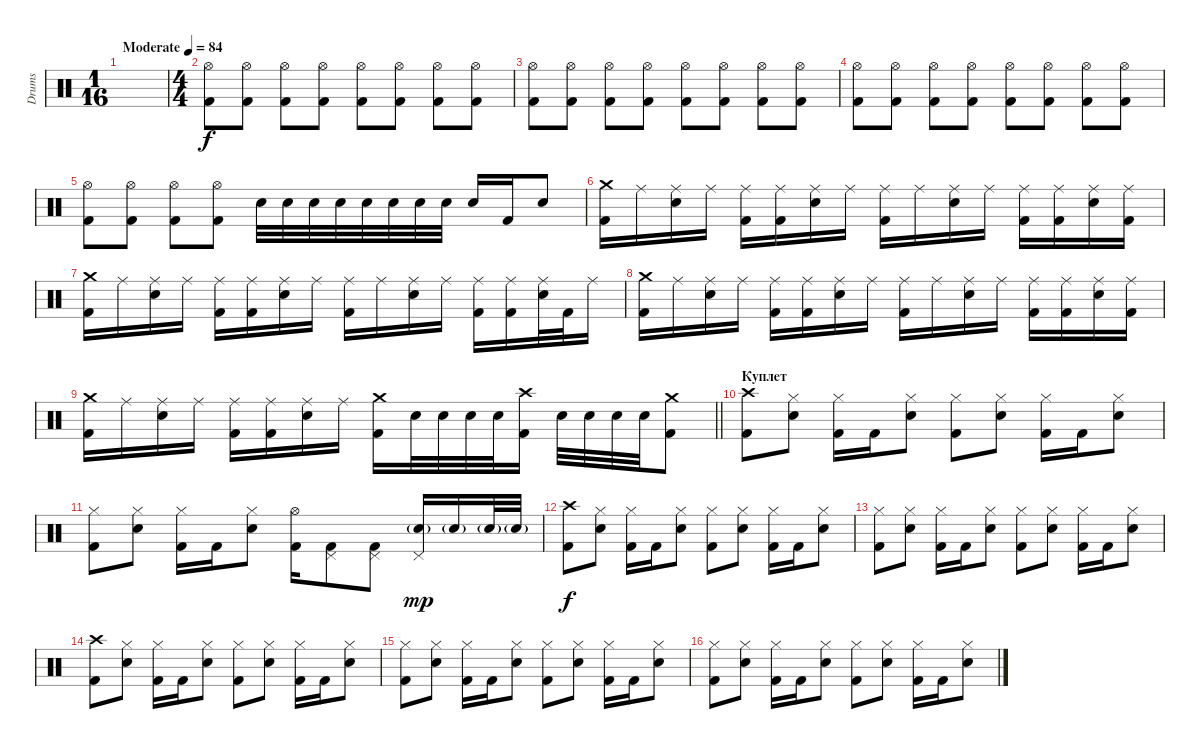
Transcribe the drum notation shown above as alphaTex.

\track ("Drums" "Drums") {instrument percussion}
\staff {score}
\articulation defaults
\ts (1 16)
\tempo (84 "Moderate")
\clef neutral
\ks c
|
\ts (4 4)
("Hi-Hat (open)" "Kick (hit) 2").8 ("Hi-Hat (open)" "Kick (hit) 2").8 ("Hi-Hat (open)" "Kick (hit) 2").8 ("Hi-Hat (open)" "Kick (hit) 2").8 ("Hi-Hat (open)" "Kick (hit) 2").8 ("Hi-Hat (open)" "Kick (hit) 2").8 ("Hi-Hat (open)" "Kick (hit) 2").8 ("Hi-Hat (open)" "Kick (hit) 2").8 |
("Hi-Hat (open)" "Kick (hit) 2").8 ("Hi-Hat (open)" "Kick (hit) 2").8 ("Hi-Hat (open)" "Kick (hit) 2").8 ("Hi-Hat (open)" "Kick (hit) 2").8 ("Hi-Hat (open)" "Kick (hit) 2").8 ("Hi-Hat (open)" "Kick (hit) 2").8 ("Hi-Hat (open)" "Kick (hit) 2").8 ("Hi-Hat (open)" "Kick (hit) 2").8 |
("Hi-Hat (open)" "Kick (hit) 2").8 ("Hi-Hat (open)" "Kick (hit) 2").8 ("Hi-Hat (open)" "Kick (hit) 2").8 ("Hi-Hat (open)" "Kick (hit) 2").8 ("Hi-Hat (open)" "Kick (hit) 2").8 ("Hi-Hat (open)" "Kick (hit) 2").8 ("Hi-Hat (open)" "Kick (hit) 2").8 ("Hi-Hat (open)" "Kick (hit) 2").8 |
("Hi-Hat (open)" "Kick (hit) 2").8 ("Hi-Hat (open)" "Kick (hit) 2").8 ("Hi-Hat (open)" "Kick (hit) 2").8 ("Hi-Hat (open)" "Kick (hit) 2").8 "Snare (hit) 2".32 "Snare (hit) 2".32 "Snare (hit) 2".32 "Snare (hit) 2".32 "Snare (hit) 2".32 "Snare (hit) 2".32 "Snare (hit) 2".32 "Snare (hit) 2".32 "Snare (hit) 2".16 "Kick (hit) 2".16 "Snare (hit) 2".8 |
("Crash medium (hit)" "Kick (hit) 2").16 "Ride (middle)".16 ("Ride (middle)" "Snare (hit) 2").16 "Ride (middle)".16 ("Ride (middle)" "Kick (hit) 2").16 ("Ride (middle)" "Kick (hit) 2").16 ("Ride (middle)" "Snare (hit) 2").16 "Ride (middle)".16 ("Ride (middle)" "Kick (hit) 2").16 "Ride (middle)".16 ("Ride (middle)" "Snare (hit) 2").16 "Ride (middle)".16 ("Ride (middle)" "Kick (hit) 2").16 ("Ride (middle)" "Kick (hit) 2").16 ("Ride (middle)" "Snare (hit) 2").16 ("Ride (middle)" "Kick (hit) 2").16 |
("Crash medium (hit)" "Kick (hit) 2").16 "Ride (middle)".16 ("Ride (middle)" "Snare (hit) 2").16 "Ride (middle)".16 ("Ride (middle)" "Kick (hit) 2").16 ("Ride (middle)" "Kick (hit) 2").16 ("Ride (middle)" "Snare (hit) 2").16 "Ride (middle)".16 ("Ride (middle)" "Kick (hit) 2").16 "Ride (middle)".16 ("Ride (middle)" "Snare (hit) 2").16 "Ride (middle)".16 ("Ride (middle)" "Kick (hit) 2").16 ("Ride (middle)" "Kick (hit) 2").16 ("Ride (middle)" "Snare (hit) 2").32 "Kick (hit) 2".32 "Ride (middle)".16 |
("Crash medium (hit)" "Kick (hit) 2").16 "Ride (middle)".16 ("Ride (middle)" "Snare (hit) 2").16 "Ride (middle)".16 ("Ride (middle)" "Kick (hit) 2").16 ("Ride (middle)" "Kick (hit) 2").16 ("Ride (middle)" "Snare (hit) 2").16 "Ride (middle)".16 ("Ride (middle)" "Kick (hit) 2").16 "Ride (middle)".16 ("Ride (middle)" "Snare (hit) 2").16 "Ride (middle)".16 ("Ride (middle)" "Kick (hit) 2").16 ("Ride (middle)" "Kick (hit) 2").16 ("Ride (middle)" "Snare (hit) 2").16 ("Ride (middle)" "Kick (hit) 2").16 |
\barLineRight lightlight
("Crash medium (hit)" "Kick (hit) 2").16 "Ride (middle)".16 ("Ride (middle)" "Snare (hit) 2").16 "Ride (middle)".16 ("Ride (middle)" "Kick (hit) 2").16 ("Ride (middle)" "Kick (hit) 2").16 ("Ride (middle)" "Snare (hit) 2").16 "Ride (middle)".16 ("Crash medium (hit)" "Kick (hit) 2").16 "Snare (hit) 2".32 "Snare (hit) 2".32 "Snare (hit) 2".32 "Snare (hit) 2".32 ("Crash high (hit)" "Kick (hit) 2").16 "Snare (hit) 2".32 "Snare (hit) 2".32 "Snare (hit) 2".32 "Snare (hit) 2".32 ("Crash medium (hit)" "Kick (hit) 2").8 |
\section ("" "Куплет")
("Crash high (hit)" "Kick (hit) 2").8 ("Hi-Hat (closed)" "Snare (hit) 2").8 ("Hi-Hat (closed)" "Kick (hit) 2").16 "Kick (hit) 2".16 ("Hi-Hat (closed)" "Snare (hit) 2").8 ("Hi-Hat (closed)" "Kick (hit) 2").8 ("Hi-Hat (closed)" "Snare (hit) 2").8 ("Hi-Hat (closed)" "Kick (hit) 2").16 "Kick (hit) 2".16 ("Hi-Hat (closed)" "Snare (hit) 2").8 |
("Hi-Hat (closed)" "Kick (hit) 2").8 ("Hi-Hat (closed)" "Snare (hit) 2").8 ("Hi-Hat (closed)" "Kick (hit) 2").16 "Kick (hit) 2".16 ("Hi-Hat (closed)" "Snare (hit) 2").8 ("Hi-Hat (open)" "Kick (hit) 2").16 ("Pedal Hi-Hat (hit)" "Kick (hit) 2").8 ("Pedal Hi-Hat (hit)" "Kick (hit) 2").8 ("Pedal Hi-Hat (hit)" "Snare (hit) 2"{g}).16{dy mp} "Snare (hit) 2"{g}.16 "Snare (hit) 2"{g}.32 "Snare (hit) 2"{g}.32 |
("Crash high (hit)" "Kick (hit) 2").8{dy f} ("Hi-Hat (closed)" "Snare (hit) 2").8 ("Hi-Hat (closed)" "Kick (hit) 2").16 "Kick (hit) 2".16 ("Hi-Hat (closed)" "Snare (hit) 2").8 ("Hi-Hat (closed)" "Kick (hit) 2").8 ("Hi-Hat (closed)" "Snare (hit) 2").8 ("Hi-Hat (closed)" "Kick (hit) 2").16 "Kick (hit) 2".16 ("Hi-Hat (closed)" "Snare (hit) 2").8 |
("Hi-Hat (closed)" "Kick (hit) 2").8 ("Hi-Hat (closed)" "Snare (hit) 2").8 ("Hi-Hat (closed)" "Kick (hit) 2").16 "Kick (hit) 2".16 ("Hi-Hat (closed)" "Snare (hit) 2").8 ("Hi-Hat (closed)" "Kick (hit) 2").8 ("Hi-Hat (closed)" "Snare (hit) 2").8 ("Hi-Hat (closed)" "Kick (hit) 2").16 "Kick (hit) 2".16 ("Hi-Hat (closed)" "Snare (hit) 2").8 |
("Crash high (hit)" "Kick (hit) 2").8 ("Hi-Hat (closed)" "Snare (hit) 2").8 ("Hi-Hat (closed)" "Kick (hit) 2").16 "Kick (hit) 2".16 ("Hi-Hat (closed)" "Snare (hit) 2").8 ("Hi-Hat (closed)" "Kick (hit) 2").8 ("Hi-Hat (closed)" "Snare (hit) 2").8 ("Hi-Hat (closed)" "Kick (hit) 2").16 "Kick (hit) 2".16 ("Hi-Hat (closed)" "Snare (hit) 2").8 |
("Hi-Hat (closed)" "Kick (hit) 2").8 ("Hi-Hat (closed)" "Snare (hit) 2").8 ("Hi-Hat (closed)" "Kick (hit) 2").16 "Kick (hit) 2".16 ("Hi-Hat (closed)" "Snare (hit) 2").8 ("Hi-Hat (closed)" "Kick (hit) 2").8 ("Hi-Hat (closed)" "Snare (hit) 2").8 ("Hi-Hat (closed)" "Kick (hit) 2").16 "Kick (hit) 2".16 ("Hi-Hat (closed)" "Snare (hit) 2").8 |
("Hi-Hat (closed)" "Kick (hit) 2").8 ("Hi-Hat (closed)" "Snare (hit) 2").8 ("Hi-Hat (closed)" "Kick (hit) 2").16 "Kick (hit) 2".16 ("Hi-Hat (closed)" "Snare (hit) 2").8 ("Hi-Hat (closed)" "Kick (hit) 2").8 ("Hi-Hat (closed)" "Snare (hit) 2").8 ("Hi-Hat (closed)" "Kick (hit) 2").16 "Kick (hit) 2".16 ("Hi-Hat (closed)" "Snare (hit) 2").8
